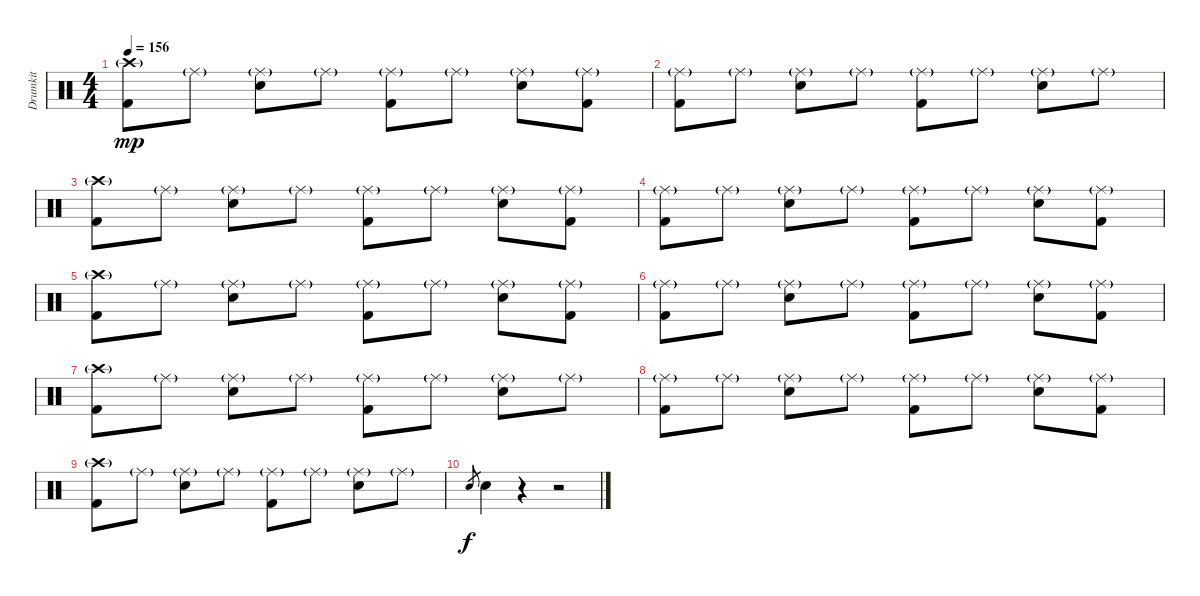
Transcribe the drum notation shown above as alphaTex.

\track ("Drumkit" "Drumkit") {instrument percussion}
\staff {score}
\articulation defaults
\ts (4 4)
\tempo 156
\clef neutral
\ks c
("Crash high (hit)"{g} "Kick (hit) 2").8{dy mp} "Ride (middle)"{g}.8 ("Ride (middle)"{g} "Electric Snare (hit)").8 "Ride (middle)"{g}.8 ("Ride (middle)"{g} "Kick (hit) 2").8 "Ride (middle)"{g}.8 ("Ride (middle)"{g} "Electric Snare (hit)").8 ("Ride (middle)"{g} "Kick (hit) 2").8 |
("Ride (middle)"{g} "Kick (hit) 2").8 "Ride (middle)"{g}.8 ("Ride (middle)"{g} "Electric Snare (hit)").8 "Ride (middle)"{g}.8 ("Ride (middle)"{g} "Kick (hit) 2").8 "Ride (middle)"{g}.8 ("Ride (middle)"{g} "Electric Snare (hit)").8 "Ride (middle)"{g}.8 |
("Crash high (hit)"{g} "Kick (hit) 2").8 "Ride (middle)"{g}.8 ("Ride (middle)"{g} "Electric Snare (hit)").8 "Ride (middle)"{g}.8 ("Ride (middle)"{g} "Kick (hit) 2").8 "Ride (middle)"{g}.8 ("Ride (middle)"{g} "Electric Snare (hit)").8 ("Ride (middle)"{g} "Kick (hit) 2").8 |
("Ride (middle)"{g} "Kick (hit) 2").8 "Ride (middle)"{g}.8 ("Ride (middle)"{g} "Electric Snare (hit)").8 "Ride (middle)"{g}.8 ("Ride (middle)"{g} "Kick (hit) 2").8 "Ride (middle)"{g}.8 ("Ride (middle)"{g} "Electric Snare (hit)").8 ("Ride (middle)"{g} "Kick (hit) 2").8 |
("Crash high (hit)"{g} "Kick (hit) 2").8 "Ride (middle)"{g}.8 ("Ride (middle)"{g} "Electric Snare (hit)").8 "Ride (middle)"{g}.8 ("Ride (middle)"{g} "Kick (hit) 2").8 "Ride (middle)"{g}.8 ("Ride (middle)"{g} "Electric Snare (hit)").8 ("Ride (middle)"{g} "Kick (hit) 2").8 |
("Ride (middle)"{g} "Kick (hit) 2").8 "Ride (middle)"{g}.8 ("Ride (middle)"{g} "Electric Snare (hit)").8 "Ride (middle)"{g}.8 ("Ride (middle)"{g} "Kick (hit) 2").8 "Ride (middle)"{g}.8 ("Ride (middle)"{g} "Electric Snare (hit)").8 ("Ride (middle)"{g} "Kick (hit) 2").8 |
("Crash high (hit)"{g} "Kick (hit) 2").8 "Ride (middle)"{g}.8 ("Ride (middle)"{g} "Electric Snare (hit)").8 "Ride (middle)"{g}.8 ("Ride (middle)"{g} "Kick (hit) 2").8 "Ride (middle)"{g}.8 ("Ride (middle)"{g} "Electric Snare (hit)").8 "Ride (middle)"{g}.8 |
("Ride (middle)"{g} "Kick (hit) 2").8 "Ride (middle)"{g}.8 ("Ride (middle)"{g} "Electric Snare (hit)").8 "Ride (middle)"{g}.8 ("Ride (middle)"{g} "Kick (hit) 2").8 "Ride (middle)"{g}.8 ("Ride (middle)"{g} "Electric Snare (hit)").8 ("Ride (middle)"{g} "Kick (hit) 2").8 |
("Crash high (hit)"{g} "Kick (hit) 2").8 "Ride (middle)"{g}.8 ("Ride (middle)"{g} "Electric Snare (hit)").8 "Ride (middle)"{g}.8 ("Ride (middle)"{g} "Kick (hit) 2").8 "Ride (middle)"{g}.8 ("Ride (middle)"{g} "Electric Snare (hit)").8 "Ride (middle)"{g}.8 |
"Electric Snare (hit)".8{gr dy f} "Electric Snare (hit)".4 r.4 r.2
